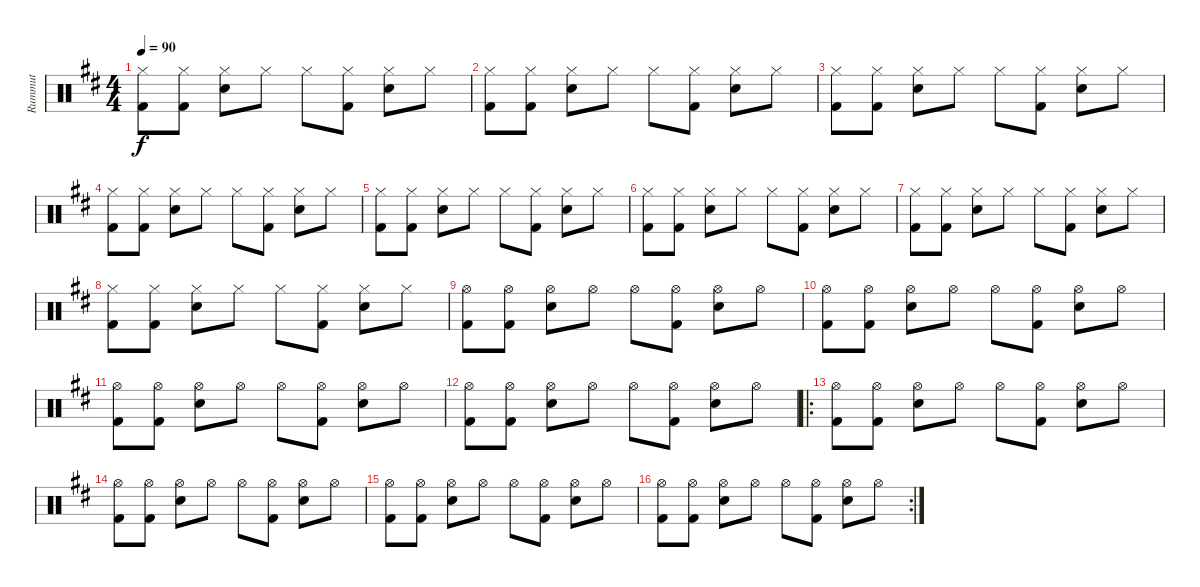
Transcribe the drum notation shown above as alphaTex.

\track ("Rummut" "Rummut") {instrument percussion}
\staff {score}
\articulation defaults
\ts (4 4)
\tempo 90
\clef neutral
\ks d
("Hi-Hat (closed)" "Kick (hit) 2").8{dy f} ("Hi-Hat (closed)" "Kick (hit) 2").8 ("Hi-Hat (closed)" "Snare (hit) 2").8 "Hi-Hat (closed)".8 "Hi-Hat (closed)".8 ("Hi-Hat (closed)" "Kick (hit) 2").8 ("Hi-Hat (closed)" "Snare (hit) 2").8 "Hi-Hat (closed)".8 |
("Hi-Hat (closed)" "Kick (hit) 2").8 ("Hi-Hat (closed)" "Kick (hit) 2").8 ("Hi-Hat (closed)" "Snare (hit) 2").8 "Hi-Hat (closed)".8 "Hi-Hat (closed)".8 ("Hi-Hat (closed)" "Kick (hit) 2").8 ("Hi-Hat (closed)" "Snare (hit) 2").8 "Hi-Hat (closed)".8 |
("Hi-Hat (closed)" "Kick (hit) 2").8 ("Hi-Hat (closed)" "Kick (hit) 2").8 ("Hi-Hat (closed)" "Snare (hit) 2").8 "Hi-Hat (closed)".8 "Hi-Hat (closed)".8 ("Hi-Hat (closed)" "Kick (hit) 2").8 ("Hi-Hat (closed)" "Snare (hit) 2").8 "Hi-Hat (closed)".8 |
("Hi-Hat (closed)" "Kick (hit) 2").8 ("Hi-Hat (closed)" "Kick (hit) 2").8 ("Hi-Hat (closed)" "Snare (hit) 2").8 "Hi-Hat (closed)".8 "Hi-Hat (closed)".8 ("Hi-Hat (closed)" "Kick (hit) 2").8 ("Hi-Hat (closed)" "Snare (hit) 2").8 "Hi-Hat (closed)".8 |
("Hi-Hat (closed)" "Kick (hit) 2").8 ("Hi-Hat (closed)" "Kick (hit) 2").8 ("Hi-Hat (closed)" "Snare (hit) 2").8 "Hi-Hat (closed)".8 "Hi-Hat (closed)".8 ("Hi-Hat (closed)" "Kick (hit) 2").8 ("Hi-Hat (closed)" "Snare (hit) 2").8 "Hi-Hat (closed)".8 |
("Hi-Hat (closed)" "Kick (hit) 2").8 ("Hi-Hat (closed)" "Kick (hit) 2").8 ("Hi-Hat (closed)" "Snare (hit) 2").8 "Hi-Hat (closed)".8 "Hi-Hat (closed)".8 ("Hi-Hat (closed)" "Kick (hit) 2").8 ("Hi-Hat (closed)" "Snare (hit) 2").8 "Hi-Hat (closed)".8 |
("Hi-Hat (closed)" "Kick (hit) 2").8 ("Hi-Hat (closed)" "Kick (hit) 2").8 ("Hi-Hat (closed)" "Snare (hit) 2").8 "Hi-Hat (closed)".8 "Hi-Hat (closed)".8 ("Hi-Hat (closed)" "Kick (hit) 2").8 ("Hi-Hat (closed)" "Snare (hit) 2").8 "Hi-Hat (closed)".8 |
("Hi-Hat (closed)" "Kick (hit) 2").8 ("Hi-Hat (closed)" "Kick (hit) 2").8 ("Hi-Hat (closed)" "Snare (hit) 2").8 "Hi-Hat (closed)".8 "Hi-Hat (closed)".8 ("Hi-Hat (closed)" "Kick (hit) 2").8 ("Hi-Hat (closed)" "Snare (hit) 2").8 "Hi-Hat (closed)".8 |
("Hi-Hat (open)" "Kick (hit) 2").8 ("Hi-Hat (open)" "Kick (hit) 2").8 ("Hi-Hat (open)" "Snare (hit) 2").8 "Hi-Hat (open)".8 "Hi-Hat (open)".8 ("Hi-Hat (open)" "Kick (hit) 2").8 ("Hi-Hat (open)" "Snare (hit) 2").8 "Hi-Hat (open)".8 |
("Hi-Hat (open)" "Kick (hit) 2").8 ("Hi-Hat (open)" "Kick (hit) 2").8 ("Hi-Hat (open)" "Snare (hit) 2").8 "Hi-Hat (open)".8 "Hi-Hat (open)".8 ("Hi-Hat (open)" "Kick (hit) 2").8 ("Hi-Hat (open)" "Snare (hit) 2").8 "Hi-Hat (open)".8 |
("Hi-Hat (open)" "Kick (hit) 2").8 ("Hi-Hat (open)" "Kick (hit) 2").8 ("Hi-Hat (open)" "Snare (hit) 2").8 "Hi-Hat (open)".8 "Hi-Hat (open)".8 ("Hi-Hat (open)" "Kick (hit) 2").8 ("Hi-Hat (open)" "Snare (hit) 2").8 "Hi-Hat (open)".8 |
("Hi-Hat (open)" "Kick (hit) 2").8 ("Hi-Hat (open)" "Kick (hit) 2").8 ("Hi-Hat (open)" "Snare (hit) 2").8 "Hi-Hat (open)".8 "Hi-Hat (open)".8 ("Hi-Hat (open)" "Kick (hit) 2").8 ("Hi-Hat (open)" "Snare (hit) 2").8 "Hi-Hat (open)".8 |
\ro
("Hi-Hat (open)" "Kick (hit) 2").8 ("Hi-Hat (open)" "Kick (hit) 2").8 ("Hi-Hat (open)" "Snare (hit) 2").8 "Hi-Hat (open)".8 "Hi-Hat (open)".8 ("Hi-Hat (open)" "Kick (hit) 2").8 ("Hi-Hat (open)" "Snare (hit) 2").8 "Hi-Hat (open)".8 |
("Hi-Hat (open)" "Kick (hit) 2").8 ("Hi-Hat (open)" "Kick (hit) 2").8 ("Hi-Hat (open)" "Snare (hit) 2").8 "Hi-Hat (open)".8 "Hi-Hat (open)".8 ("Hi-Hat (open)" "Kick (hit) 2").8 ("Hi-Hat (open)" "Snare (hit) 2").8 "Hi-Hat (open)".8 |
("Hi-Hat (open)" "Kick (hit) 2").8 ("Hi-Hat (open)" "Kick (hit) 2").8 ("Hi-Hat (open)" "Snare (hit) 2").8 "Hi-Hat (open)".8 "Hi-Hat (open)".8 ("Hi-Hat (open)" "Kick (hit) 2").8 ("Hi-Hat (open)" "Snare (hit) 2").8 "Hi-Hat (open)".8 |
\rc 2
("Hi-Hat (open)" "Kick (hit) 2").8 ("Hi-Hat (open)" "Kick (hit) 2").8 ("Hi-Hat (open)" "Snare (hit) 2").8 "Hi-Hat (open)".8 "Hi-Hat (open)".8 ("Hi-Hat (open)" "Kick (hit) 2").8 ("Hi-Hat (open)" "Snare (hit) 2").8 "Hi-Hat (open)".8
